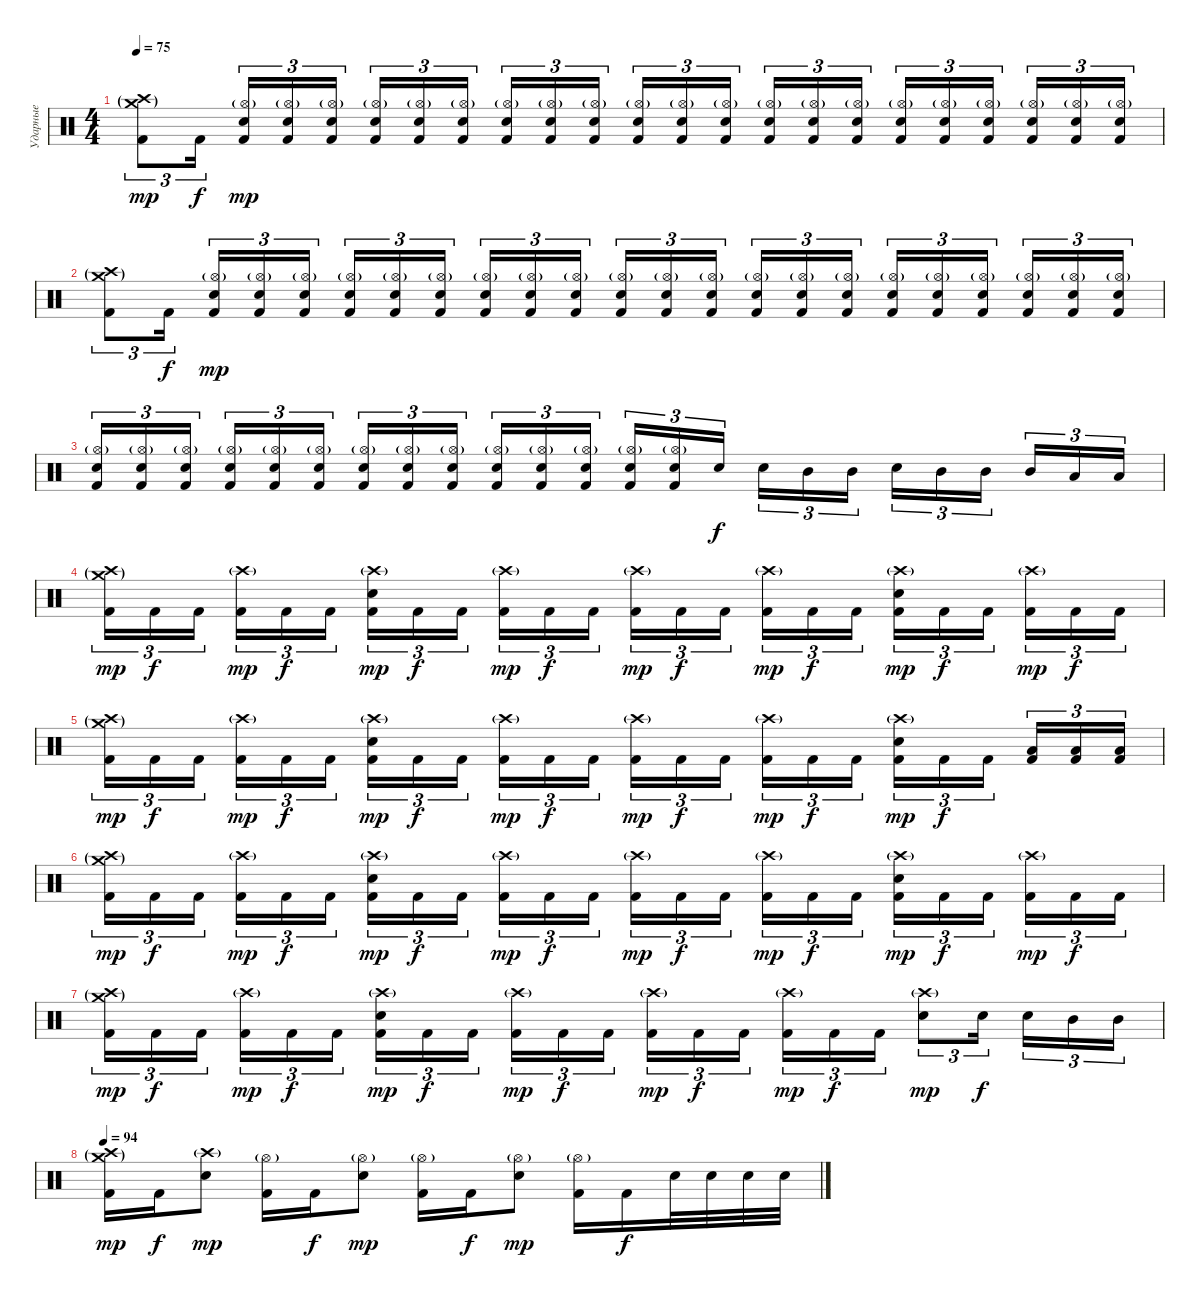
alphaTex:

\track ("Ударные" "Ударные") {instrument percussion}
\staff {score}
\articulation defaults
\ts (4 4)
\tempo 75
\clef neutral
\ks c
("Crash high (hit)"{g} "Crash medium (hit)"{g} "Kick (hit) 2").8{tu (3 2) dy mp} "Kick (hit) 2".16{tu (3 2) dy f} ("Hi-Hat (open)"{g} "Electric Snare (hit)" "Kick (hit) 2").16{tu (3 2) dy mp} ("Hi-Hat (open)"{g} "Electric Snare (hit)" "Kick (hit) 2").16{tu (3 2)} ("Hi-Hat (open)"{g} "Electric Snare (hit)" "Kick (hit) 2").16{tu (3 2)} ("Hi-Hat (open)"{g} "Electric Snare (hit)" "Kick (hit) 2").16{tu (3 2)} ("Hi-Hat (open)"{g} "Electric Snare (hit)" "Kick (hit) 2").16{tu (3 2)} ("Hi-Hat (open)"{g} "Electric Snare (hit)" "Kick (hit) 2").16{tu (3 2)} ("Hi-Hat (open)"{g} "Electric Snare (hit)" "Kick (hit) 2").16{tu (3 2)} ("Hi-Hat (open)"{g} "Electric Snare (hit)" "Kick (hit) 2").16{tu (3 2)} ("Hi-Hat (open)"{g} "Electric Snare (hit)" "Kick (hit) 2").16{tu (3 2)} ("Hi-Hat (open)"{g} "Electric Snare (hit)" "Kick (hit) 2").16{tu (3 2)} ("Hi-Hat (open)"{g} "Electric Snare (hit)" "Kick (hit) 2").16{tu (3 2)} ("Hi-Hat (open)"{g} "Electric Snare (hit)" "Kick (hit) 2").16{tu (3 2)} ("Hi-Hat (open)"{g} "Electric Snare (hit)" "Kick (hit) 2").16{tu (3 2)} ("Hi-Hat (open)"{g} "Electric Snare (hit)" "Kick (hit) 2").16{tu (3 2)} ("Hi-Hat (open)"{g} "Electric Snare (hit)" "Kick (hit) 2").16{tu (3 2)} ("Hi-Hat (open)"{g} "Electric Snare (hit)" "Kick (hit) 2").16{tu (3 2)} ("Hi-Hat (open)"{g} "Electric Snare (hit)" "Kick (hit) 2").16{tu (3 2)} ("Hi-Hat (open)"{g} "Electric Snare (hit)" "Kick (hit) 2").16{tu (3 2)} ("Hi-Hat (open)"{g} "Electric Snare (hit)" "Kick (hit) 2").16{tu (3 2)} ("Hi-Hat (open)"{g} "Electric Snare (hit)" "Kick (hit) 2").16{tu (3 2)} ("Hi-Hat (open)"{g} "Electric Snare (hit)" "Kick (hit) 2").16{tu (3 2)} |
("Crash high (hit)"{g} "Crash medium (hit)"{g} "Kick (hit) 2").8{tu (3 2)} "Kick (hit) 2".16{tu (3 2) dy f} ("Hi-Hat (open)"{g} "Electric Snare (hit)" "Kick (hit) 2").16{tu (3 2) dy mp} ("Hi-Hat (open)"{g} "Electric Snare (hit)" "Kick (hit) 2").16{tu (3 2)} ("Hi-Hat (open)"{g} "Electric Snare (hit)" "Kick (hit) 2").16{tu (3 2)} ("Hi-Hat (open)"{g} "Electric Snare (hit)" "Kick (hit) 2").16{tu (3 2)} ("Hi-Hat (open)"{g} "Electric Snare (hit)" "Kick (hit) 2").16{tu (3 2)} ("Hi-Hat (open)"{g} "Electric Snare (hit)" "Kick (hit) 2").16{tu (3 2)} ("Hi-Hat (open)"{g} "Electric Snare (hit)" "Kick (hit) 2").16{tu (3 2)} ("Hi-Hat (open)"{g} "Electric Snare (hit)" "Kick (hit) 2").16{tu (3 2)} ("Hi-Hat (open)"{g} "Electric Snare (hit)" "Kick (hit) 2").16{tu (3 2)} ("Hi-Hat (open)"{g} "Electric Snare (hit)" "Kick (hit) 2").16{tu (3 2)} ("Hi-Hat (open)"{g} "Electric Snare (hit)" "Kick (hit) 2").16{tu (3 2)} ("Hi-Hat (open)"{g} "Electric Snare (hit)" "Kick (hit) 2").16{tu (3 2)} ("Hi-Hat (open)"{g} "Electric Snare (hit)" "Kick (hit) 2").16{tu (3 2)} ("Hi-Hat (open)"{g} "Electric Snare (hit)" "Kick (hit) 2").16{tu (3 2)} ("Hi-Hat (open)"{g} "Electric Snare (hit)" "Kick (hit) 2").16{tu (3 2)} ("Hi-Hat (open)"{g} "Electric Snare (hit)" "Kick (hit) 2").16{tu (3 2)} ("Hi-Hat (open)"{g} "Electric Snare (hit)" "Kick (hit) 2").16{tu (3 2)} ("Hi-Hat (open)"{g} "Electric Snare (hit)" "Kick (hit) 2").16{tu (3 2)} ("Hi-Hat (open)"{g} "Electric Snare (hit)" "Kick (hit) 2").16{tu (3 2)} ("Hi-Hat (open)"{g} "Electric Snare (hit)" "Kick (hit) 2").16{tu (3 2)} ("Hi-Hat (open)"{g} "Electric Snare (hit)" "Kick (hit) 2").16{tu (3 2)} |
("Hi-Hat (open)"{g} "Electric Snare (hit)" "Kick (hit) 2").16{tu (3 2)} ("Hi-Hat (open)"{g} "Electric Snare (hit)" "Kick (hit) 2").16{tu (3 2)} ("Hi-Hat (open)"{g} "Electric Snare (hit)" "Kick (hit) 2").16{tu (3 2)} ("Hi-Hat (open)"{g} "Electric Snare (hit)" "Kick (hit) 2").16{tu (3 2)} ("Hi-Hat (open)"{g} "Electric Snare (hit)" "Kick (hit) 2").16{tu (3 2)} ("Hi-Hat (open)"{g} "Electric Snare (hit)" "Kick (hit) 2").16{tu (3 2)} ("Hi-Hat (open)"{g} "Electric Snare (hit)" "Kick (hit) 2").16{tu (3 2)} ("Hi-Hat (open)"{g} "Electric Snare (hit)" "Kick (hit) 2").16{tu (3 2)} ("Hi-Hat (open)"{g} "Electric Snare (hit)" "Kick (hit) 2").16{tu (3 2)} ("Hi-Hat (open)"{g} "Electric Snare (hit)" "Kick (hit) 2").16{tu (3 2)} ("Hi-Hat (open)"{g} "Electric Snare (hit)" "Kick (hit) 2").16{tu (3 2)} ("Hi-Hat (open)"{g} "Electric Snare (hit)" "Kick (hit) 2").16{tu (3 2)} ("Hi-Hat (open)"{g} "Electric Snare (hit)" "Kick (hit) 2").16{tu (3 2)} ("Hi-Hat (open)"{g} "Electric Snare (hit)" "Kick (hit) 2").16{tu (3 2)} "Electric Snare (hit)".16{tu (3 2) dy f} "Electric Snare (hit)".16{tu (3 2)} "Mid Tom (hit)".16{tu (3 2)} "Mid Tom (hit)".16{tu (3 2)} "Electric Snare (hit)".16{tu (3 2)} "Mid Tom (hit)".16{tu (3 2)} "Mid Tom (hit)".16{tu (3 2)} "Mid Tom (hit)".16{tu (3 2)} "Low Tom (hit)".16{tu (3 2)} "Low Tom (hit)".16{tu (3 2)} |
("Crash high (hit)"{g} "Crash medium (hit)"{g} "Kick (hit) 2").16{tu (3 2) dy mp} "Kick (hit) 2".16{tu (3 2) dy f} "Kick (hit) 2".16{tu (3 2)} ("Crash high (hit)"{g} "Kick (hit) 2").16{tu (3 2) dy mp} "Kick (hit) 2".16{tu (3 2) dy f} "Kick (hit) 2".16{tu (3 2)} ("Crash high (hit)"{g} "Electric Snare (hit)" "Kick (hit) 2").16{tu (3 2) dy mp} "Kick (hit) 2".16{tu (3 2) dy f} "Kick (hit) 2".16{tu (3 2)} ("Crash high (hit)"{g} "Kick (hit) 2").16{tu (3 2) dy mp} "Kick (hit) 2".16{tu (3 2) dy f} "Kick (hit) 2".16{tu (3 2)} ("Crash high (hit)"{g} "Kick (hit) 2").16{tu (3 2) dy mp} "Kick (hit) 2".16{tu (3 2) dy f} "Kick (hit) 2".16{tu (3 2)} ("Crash high (hit)"{g} "Kick (hit) 2").16{tu (3 2) dy mp} "Kick (hit) 2".16{tu (3 2) dy f} "Kick (hit) 2".16{tu (3 2)} ("Crash high (hit)"{g} "Electric Snare (hit)" "Kick (hit) 2").16{tu (3 2) dy mp} "Kick (hit) 2".16{tu (3 2) dy f} "Kick (hit) 2".16{tu (3 2)} ("Crash high (hit)"{g} "Kick (hit) 2").16{tu (3 2) dy mp} "Kick (hit) 2".16{tu (3 2) dy f} "Kick (hit) 2".16{tu (3 2)} |
("Crash high (hit)"{g} "Crash medium (hit)"{g} "Kick (hit) 2").16{tu (3 2) dy mp} "Kick (hit) 2".16{tu (3 2) dy f} "Kick (hit) 2".16{tu (3 2)} ("Crash high (hit)"{g} "Kick (hit) 2").16{tu (3 2) dy mp} "Kick (hit) 2".16{tu (3 2) dy f} "Kick (hit) 2".16{tu (3 2)} ("Crash high (hit)"{g} "Electric Snare (hit)" "Kick (hit) 2").16{tu (3 2) dy mp} "Kick (hit) 2".16{tu (3 2) dy f} "Kick (hit) 2".16{tu (3 2)} ("Crash high (hit)"{g} "Kick (hit) 2").16{tu (3 2) dy mp} "Kick (hit) 2".16{tu (3 2) dy f} "Kick (hit) 2".16{tu (3 2)} ("Crash high (hit)"{g} "Kick (hit) 2").16{tu (3 2) dy mp} "Kick (hit) 2".16{tu (3 2) dy f} "Kick (hit) 2".16{tu (3 2)} ("Crash high (hit)"{g} "Kick (hit) 2").16{tu (3 2) dy mp} "Kick (hit) 2".16{tu (3 2) dy f} "Kick (hit) 2".16{tu (3 2)} ("Crash high (hit)"{g} "Electric Snare (hit)" "Kick (hit) 2").16{tu (3 2) dy mp} "Kick (hit) 2".16{tu (3 2) dy f} "Kick (hit) 2".16{tu (3 2)} ("Low Tom (hit)" "Kick (hit) 2").16{tu (3 2)} ("Low Tom (hit)" "Kick (hit) 2").16{tu (3 2)} ("Low Tom (hit)" "Kick (hit) 2").16{tu (3 2)} |
("Crash high (hit)"{g} "Crash medium (hit)"{g} "Kick (hit) 2").16{tu (3 2) dy mp} "Kick (hit) 2".16{tu (3 2) dy f} "Kick (hit) 2".16{tu (3 2)} ("Crash high (hit)"{g} "Kick (hit) 2").16{tu (3 2) dy mp} "Kick (hit) 2".16{tu (3 2) dy f} "Kick (hit) 2".16{tu (3 2)} ("Crash high (hit)"{g} "Electric Snare (hit)" "Kick (hit) 2").16{tu (3 2) dy mp} "Kick (hit) 2".16{tu (3 2) dy f} "Kick (hit) 2".16{tu (3 2)} ("Crash high (hit)"{g} "Kick (hit) 2").16{tu (3 2) dy mp} "Kick (hit) 2".16{tu (3 2) dy f} "Kick (hit) 2".16{tu (3 2)} ("Crash high (hit)"{g} "Kick (hit) 2").16{tu (3 2) dy mp} "Kick (hit) 2".16{tu (3 2) dy f} "Kick (hit) 2".16{tu (3 2)} ("Crash high (hit)"{g} "Kick (hit) 2").16{tu (3 2) dy mp} "Kick (hit) 2".16{tu (3 2) dy f} "Kick (hit) 2".16{tu (3 2)} ("Crash high (hit)"{g} "Electric Snare (hit)" "Kick (hit) 2").16{tu (3 2) dy mp} "Kick (hit) 2".16{tu (3 2) dy f} "Kick (hit) 2".16{tu (3 2)} ("Crash high (hit)"{g} "Kick (hit) 2").16{tu (3 2) dy mp} "Kick (hit) 2".16{tu (3 2) dy f} "Kick (hit) 2".16{tu (3 2)} |
("Crash high (hit)"{g} "Crash medium (hit)"{g} "Kick (hit) 2").16{tu (3 2) dy mp} "Kick (hit) 2".16{tu (3 2) dy f} "Kick (hit) 2".16{tu (3 2)} ("Crash high (hit)"{g} "Kick (hit) 2").16{tu (3 2) dy mp} "Kick (hit) 2".16{tu (3 2) dy f} "Kick (hit) 2".16{tu (3 2)} ("Crash high (hit)"{g} "Electric Snare (hit)" "Kick (hit) 2").16{tu (3 2) dy mp} "Kick (hit) 2".16{tu (3 2) dy f} "Kick (hit) 2".16{tu (3 2)} ("Crash high (hit)"{g} "Kick (hit) 2").16{tu (3 2) dy mp} "Kick (hit) 2".16{tu (3 2) dy f} "Kick (hit) 2".16{tu (3 2)} ("Crash high (hit)"{g} "Kick (hit) 2").16{tu (3 2) dy mp} "Kick (hit) 2".16{tu (3 2) dy f} "Kick (hit) 2".16{tu (3 2)} ("Crash high (hit)"{g} "Kick (hit) 2").16{tu (3 2) dy mp} "Kick (hit) 2".16{tu (3 2) dy f} "Kick (hit) 2".16{tu (3 2)} ("Crash high (hit)"{g} "Electric Snare (hit)").8{tu (3 2) dy mp} "Electric Snare (hit)".16{tu (3 2) dy f} "Electric Snare (hit)".16{tu (3 2)} "Mid Tom (hit)".16{tu (3 2)} "Mid Tom (hit)".16{tu (3 2)} |
\tempo 94
("Crash high (hit)"{g} "Crash medium (hit)"{g} "Kick (hit) 2").16{dy mp} "Kick (hit) 2".16{dy f} ("Crash high (hit)"{g} "Electric Snare (hit)").8{dy mp} ("Hi-Hat (open)"{g} "Kick (hit) 2").16 "Kick (hit) 2".16{dy f} ("Hi-Hat (open)"{g} "Electric Snare (hit)").8{dy mp} ("Hi-Hat (open)"{g} "Kick (hit) 2").16 "Kick (hit) 2".16{dy f} ("Hi-Hat (open)"{g} "Electric Snare (hit)").8{dy mp} ("Hi-Hat (open)"{g} "Kick (hit) 2").16 "Kick (hit) 2".16{dy f} "Electric Snare (hit)".32 "Electric Snare (hit)".32 "Electric Snare (hit)".32 "Electric Snare (hit)".32
